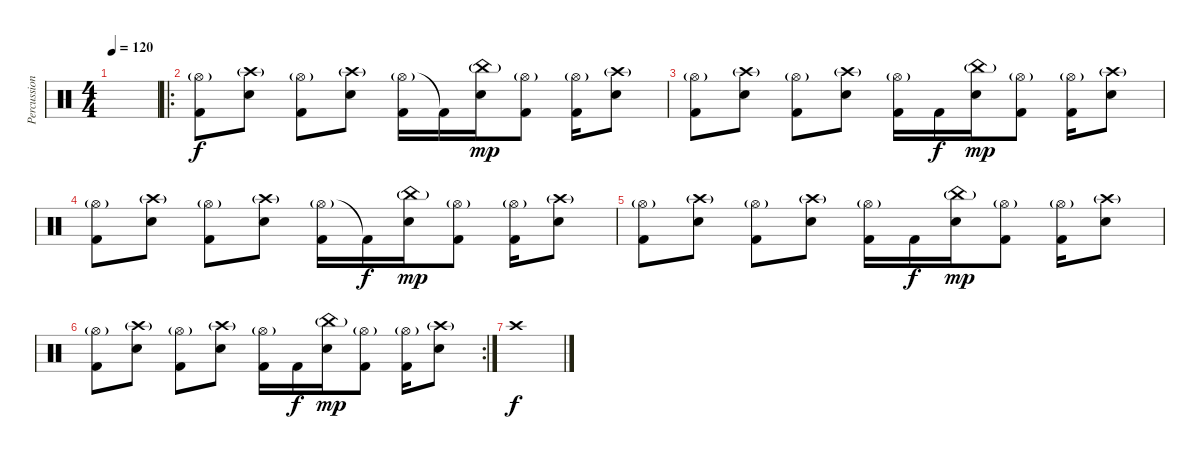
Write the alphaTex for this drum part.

\track ("Percussion" "Percussion") {instrument percussion}
\staff {score}
\articulation defaults
\ts (4 4)
\tempo 120
\clef neutral
\ks c
|
\ro
("Hi-Hat (open)"{g} "Kick (hit) 2").8 ("Crash high (hit)"{g} "Electric Snare (hit)").8 ("Hi-Hat (open)"{g} "Kick (hit) 2").8 ("Crash high (hit)"{g} "Electric Snare (hit)").8 ("Hi-Hat (open)"{g} "Kick (hit) 2").16 "Kick (hit) 2"{t}.16{dy f} ("China (hit)"{g} "Electric Snare (hit)").16{dy mp} ("Hi-Hat (open)"{g} "Kick (hit) 2").8 ("Hi-Hat (open)"{g} "Kick (hit) 2").16 ("Crash high (hit)"{g} "Electric Snare (hit)").8 |
("Hi-Hat (open)"{g} "Kick (hit) 2").8 ("Crash high (hit)"{g} "Electric Snare (hit)").8 ("Hi-Hat (open)"{g} "Kick (hit) 2").8 ("Crash high (hit)"{g} "Electric Snare (hit)").8 ("Hi-Hat (open)"{g} "Kick (hit) 2").16 "Kick (hit) 2".16{dy f} ("China (hit)"{g} "Electric Snare (hit)").16{dy mp} ("Hi-Hat (open)"{g} "Kick (hit) 2").8 ("Hi-Hat (open)"{g} "Kick (hit) 2").16 ("Crash high (hit)"{g} "Electric Snare (hit)").8 |
("Hi-Hat (open)"{g} "Kick (hit) 2").8 ("Crash high (hit)"{g} "Electric Snare (hit)").8 ("Hi-Hat (open)"{g} "Kick (hit) 2").8 ("Crash high (hit)"{g} "Electric Snare (hit)").8 ("Hi-Hat (open)"{g} "Kick (hit) 2").16 "Kick (hit) 2"{t}.16{dy f} ("China (hit)"{g} "Electric Snare (hit)").16{dy mp} ("Hi-Hat (open)"{g} "Kick (hit) 2").8 ("Hi-Hat (open)"{g} "Kick (hit) 2").16 ("Crash high (hit)"{g} "Electric Snare (hit)").8 |
("Hi-Hat (open)"{g} "Kick (hit) 2").8 ("Crash high (hit)"{g} "Electric Snare (hit)").8 ("Hi-Hat (open)"{g} "Kick (hit) 2").8 ("Crash high (hit)"{g} "Electric Snare (hit)").8 ("Hi-Hat (open)"{g} "Kick (hit) 2").16 "Kick (hit) 2".16{dy f} ("China (hit)"{g} "Electric Snare (hit)").16{dy mp} ("Hi-Hat (open)"{g} "Kick (hit) 2").8 ("Hi-Hat (open)"{g} "Kick (hit) 2").16 ("Crash high (hit)"{g} "Electric Snare (hit)").8 |
\rc 2
("Hi-Hat (open)"{g} "Kick (hit) 2").8 ("Crash high (hit)"{g} "Electric Snare (hit)").8 ("Hi-Hat (open)"{g} "Kick (hit) 2").8 ("Crash high (hit)"{g} "Electric Snare (hit)").8 ("Hi-Hat (open)"{g} "Kick (hit) 2").16 "Kick (hit) 2".16{dy f} ("China (hit)"{g} "Electric Snare (hit)").16{dy mp} ("Hi-Hat (open)"{g} "Kick (hit) 2").8 ("Hi-Hat (open)"{g} "Kick (hit) 2").16 ("Crash high (hit)"{g} "Electric Snare (hit)").8 |
"Crash high (hit)".1{dy f}
